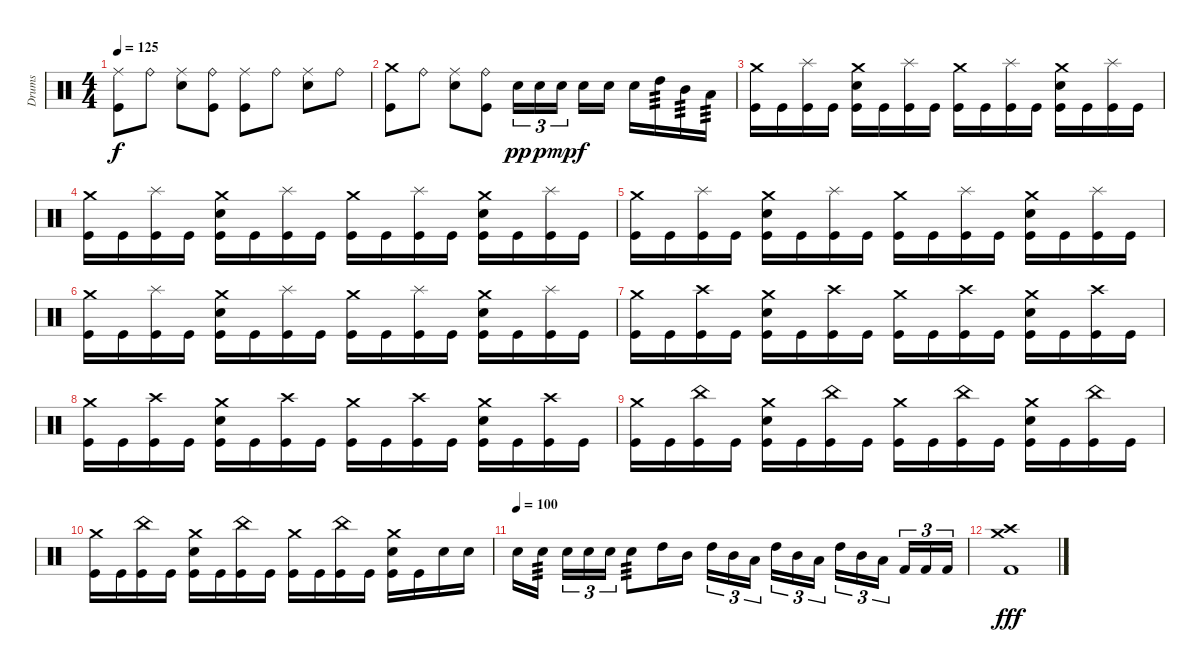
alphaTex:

\track ("Drums" "Drums") {instrument percussion}
\staff {score}
\articulation defaults
\ts (4 4)
\tempo 125
\clef neutral
\ks c
("Ride (middle)" "Kick (hit)").8{dy f} "Ride (bell)".8 ("Ride (middle)" "Electric Snare (hit)").8 ("Ride (bell)" "Kick (hit)").8 ("Ride (middle)" "Kick (hit)").8 "Ride (bell)".8 ("Ride (middle)" "Electric Snare (hit)").8 "Ride (bell)".8 |
("Crash medium (hit)" "Kick (hit)").8 "Ride (bell)".8 ("Ride (middle)" "Electric Snare (hit)").8 ("Ride (bell)" "Kick (hit)").8 "Electric Snare (hit)".16{tu (3 2) dy pp} "Electric Snare (hit)".16{tu (3 2) dy p} "Electric Snare (hit)".16{tu (3 2) dy mp} "Electric Snare (hit)".16{dy f} "Electric Snare (hit)".16 "Electric Snare (hit)".16 "High Tom (hit)".16{tp 3} "Mid Tom (hit)".16{tp 3} "Low Tom (hit)".16{tp 3} |
("Crash medium (hit)" "Kick (hit)").16 "Kick (hit)".16 ("Splash (hit)" "Kick (hit)").16 "Kick (hit)".16 ("Crash medium (hit)" "Electric Snare (hit)" "Kick (hit)").16 "Kick (hit)".16 ("Splash (hit)" "Kick (hit)").16 "Kick (hit)".16 ("Crash medium (hit)" "Kick (hit)").16 "Kick (hit)".16 ("Splash (hit)" "Kick (hit)").16 "Kick (hit)".16 ("Crash medium (hit)" "Electric Snare (hit)" "Kick (hit)").16 "Kick (hit)".16 ("Splash (hit)" "Kick (hit)").16 "Kick (hit)".16 |
("Crash medium (hit)" "Kick (hit)").16 "Kick (hit)".16 ("Splash (hit)" "Kick (hit)").16 "Kick (hit)".16 ("Crash medium (hit)" "Electric Snare (hit)" "Kick (hit)").16 "Kick (hit)".16 ("Splash (hit)" "Kick (hit)").16 "Kick (hit)".16 ("Crash medium (hit)" "Kick (hit)").16 "Kick (hit)".16 ("Splash (hit)" "Kick (hit)").16 "Kick (hit)".16 ("Crash medium (hit)" "Electric Snare (hit)" "Kick (hit)").16 "Kick (hit)".16 ("Splash (hit)" "Kick (hit)").16 "Kick (hit)".16 |
("Crash medium (hit)" "Kick (hit)").16 "Kick (hit)".16 ("Splash (hit)" "Kick (hit)").16 "Kick (hit)".16 ("Crash medium (hit)" "Electric Snare (hit)" "Kick (hit)").16 "Kick (hit)".16 ("Splash (hit)" "Kick (hit)").16 "Kick (hit)".16 ("Crash medium (hit)" "Kick (hit)").16 "Kick (hit)".16 ("Splash (hit)" "Kick (hit)").16 "Kick (hit)".16 ("Crash medium (hit)" "Electric Snare (hit)" "Kick (hit)").16 "Kick (hit)".16 ("Splash (hit)" "Kick (hit)").16 "Kick (hit)".16 |
("Crash medium (hit)" "Kick (hit)").16 "Kick (hit)".16 ("Splash (hit)" "Kick (hit)").16 "Kick (hit)".16 ("Crash medium (hit)" "Electric Snare (hit)" "Kick (hit)").16 "Kick (hit)".16 ("Splash (hit)" "Kick (hit)").16 "Kick (hit)".16 ("Crash medium (hit)" "Kick (hit)").16 "Kick (hit)".16 ("Splash (hit)" "Kick (hit)").16 "Kick (hit)".16 ("Crash medium (hit)" "Electric Snare (hit)" "Kick (hit)").16 "Kick (hit)".16 ("Splash (hit)" "Kick (hit)").16 "Kick (hit)".16 |
("Crash medium (hit)" "Kick (hit)").16 "Kick (hit)".16 ("Crash high (hit)" "Kick (hit)").16 "Kick (hit)".16 ("Crash medium (hit)" "Electric Snare (hit)" "Kick (hit)").16 "Kick (hit)".16 ("Crash high (hit)" "Kick (hit)").16 "Kick (hit)".16 ("Crash medium (hit)" "Kick (hit)").16 "Kick (hit)".16 ("Crash high (hit)" "Kick (hit)").16 "Kick (hit)".16 ("Crash medium (hit)" "Electric Snare (hit)" "Kick (hit)").16 "Kick (hit)".16 ("Crash high (hit)" "Kick (hit)").16 "Kick (hit)".16 |
("Crash medium (hit)" "Kick (hit)").16 "Kick (hit)".16 ("Crash high (hit)" "Kick (hit)").16 "Kick (hit)".16 ("Crash medium (hit)" "Electric Snare (hit)" "Kick (hit)").16 "Kick (hit)".16 ("Crash high (hit)" "Kick (hit)").16 "Kick (hit)".16 ("Crash medium (hit)" "Kick (hit)").16 "Kick (hit)".16 ("Crash high (hit)" "Kick (hit)").16 "Kick (hit)".16 ("Crash medium (hit)" "Electric Snare (hit)" "Kick (hit)").16 "Kick (hit)".16 ("Crash high (hit)" "Kick (hit)").16 "Kick (hit)".16 |
("Crash medium (hit)" "Kick (hit)").16 "Kick (hit)".16 ("China (hit)" "Kick (hit)").16 "Kick (hit)".16 ("Crash medium (hit)" "Electric Snare (hit)" "Kick (hit)").16 "Kick (hit)".16 ("China (hit)" "Kick (hit)").16 "Kick (hit)".16 ("Crash medium (hit)" "Kick (hit)").16 "Kick (hit)".16 ("China (hit)" "Kick (hit)").16 "Kick (hit)".16 ("Crash medium (hit)" "Electric Snare (hit)" "Kick (hit)").16 "Kick (hit)".16 ("China (hit)" "Kick (hit)").16 "Kick (hit)".16 |
("Crash medium (hit)" "Kick (hit)").16 "Kick (hit)".16 ("China (hit)" "Kick (hit)").16 "Kick (hit)".16 ("Crash medium (hit)" "Electric Snare (hit)" "Kick (hit)").16 "Kick (hit)".16 ("China (hit)" "Kick (hit)").16 "Kick (hit)".16 ("Crash medium (hit)" "Kick (hit)").16 "Kick (hit)".16 ("China (hit)" "Kick (hit)").16 "Kick (hit)".16 ("Crash medium (hit)" "Electric Snare (hit)" "Kick (hit)").16 "Kick (hit)".16 "Electric Snare (hit)".16 "Electric Snare (hit)".16 |
\tempo (100)
"Electric Snare (hit)".16 "Electric Snare (hit)".16{tp 3} "Electric Snare (hit)".16{tu (3 2)} "Electric Snare (hit)".16{tu (3 2)} "Electric Snare (hit)".16{tu (3 2)} "Electric Snare (hit)".8{tp 3} "High Tom (hit)".16 "Mid Tom (hit)".16 "High Tom (hit)".16{tu (3 2)} "Mid Tom (hit)".16{tu (3 2)} "Low Tom (hit)".16{tu (3 2)} "High Tom (hit)".16{tu (3 2)} "Mid Tom (hit)".16{tu (3 2)} "Low Tom (hit)".16{tu (3 2)} "High Tom (hit)".16{tu (3 2)} "Mid Tom (hit)".16{tu (3 2)} "Low Tom (hit)".16{tu (3 2)} "Kick (hit) 2".16{tu (3 2)} "Kick (hit) 2".16{tu (3 2)} "Kick (hit) 2".16{tu (3 2)} |
("Crash high (hit)" "Crash medium (hit)" "Kick (hit) 2").1{dy fff}
